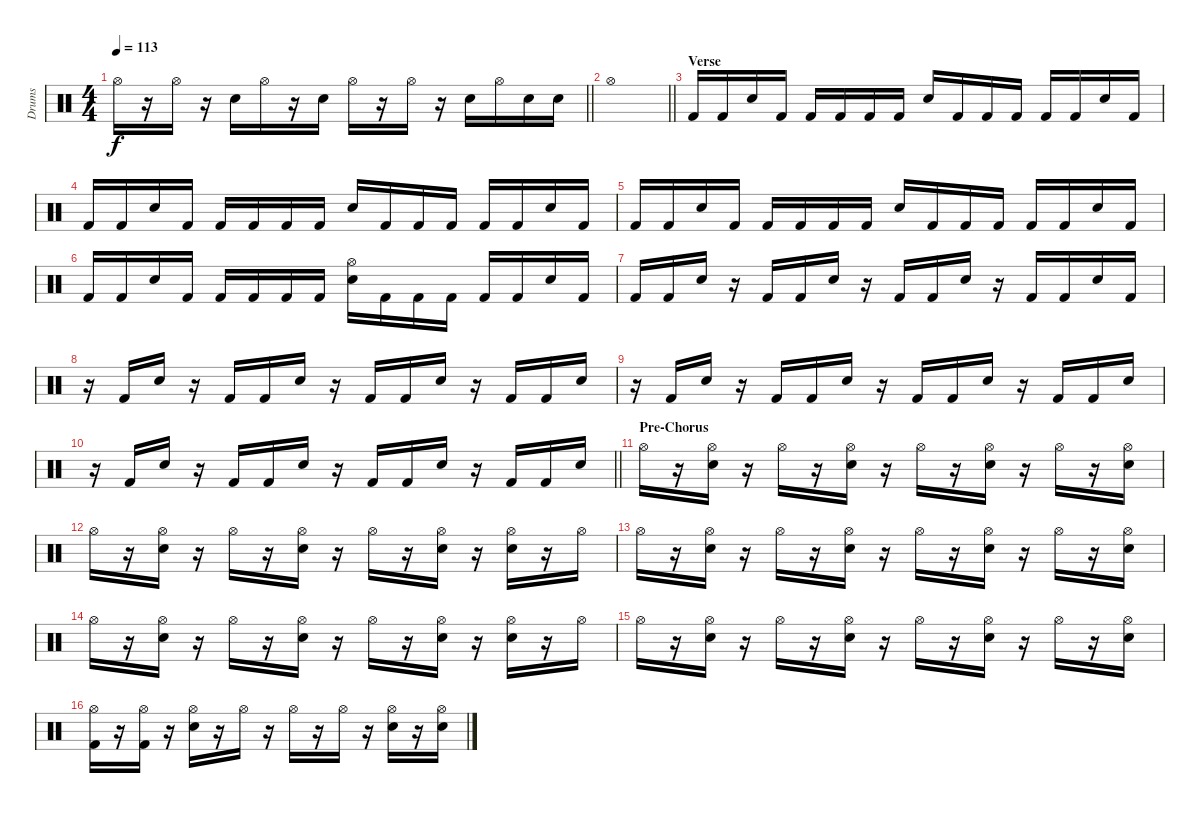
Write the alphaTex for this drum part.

\track ("Drums" "Drums") {instrument percussion}
\staff {score}
\articulation defaults
\ts (4 4)
\tempo 113
\clef neutral
\barLineRight lightlight
\ks c "Hi-Hat (open)".16{dy f}
r.16 "Hi-Hat (open)".16 r.16 "Electric Snare (hit)".16 "Hi-Hat (open)".16 r.16 "Electric Snare (hit)".16 "Hi-Hat (open)".16 r.16 "Hi-Hat (open)".16 r.16 "Electric Snare (hit)".16 "Hi-Hat (open)".16 "Electric Snare (hit)".16 "Electric Snare (hit)".16 |
\barLineRight lightlight "Hi-Hat (open)".1
|
\section ("" "Verse")
"Kick (hit) 2".16 "Kick (hit) 2".16 "Electric Snare (hit)".16 "Kick (hit) 2".16 "Kick (hit) 2".16 "Kick (hit) 2".16 "Kick (hit) 2".16 "Kick (hit) 2".16 "Electric Snare (hit)".16 "Kick (hit) 2".16 "Kick (hit) 2".16 "Kick (hit) 2".16 "Kick (hit) 2".16 "Kick (hit) 2".16 "Electric Snare (hit)".16 "Kick (hit) 2".16 |
"Kick (hit) 2".16 "Kick (hit) 2".16 "Electric Snare (hit)".16 "Kick (hit) 2".16 "Kick (hit) 2".16 "Kick (hit) 2".16 "Kick (hit) 2".16 "Kick (hit) 2".16 "Electric Snare (hit)".16 "Kick (hit) 2".16 "Kick (hit) 2".16 "Kick (hit) 2".16 "Kick (hit) 2".16 "Kick (hit) 2".16 "Electric Snare (hit)".16 "Kick (hit) 2".16 |
"Kick (hit) 2".16 "Kick (hit) 2".16 "Electric Snare (hit)".16 "Kick (hit) 2".16 "Kick (hit) 2".16 "Kick (hit) 2".16 "Kick (hit) 2".16 "Kick (hit) 2".16 "Electric Snare (hit)".16 "Kick (hit) 2".16 "Kick (hit) 2".16 "Kick (hit) 2".16 "Kick (hit) 2".16 "Kick (hit) 2".16 "Electric Snare (hit)".16 "Kick (hit) 2".16 |
"Kick (hit) 2".16 "Kick (hit) 2".16 "Electric Snare (hit)".16 "Kick (hit) 2".16 "Kick (hit) 2".16 "Kick (hit) 2".16 "Kick (hit) 2".16 "Kick (hit) 2".16 ("Hi-Hat (open)" "Electric Snare (hit)").16 "Kick (hit) 2".16 "Kick (hit) 2".16 "Kick (hit) 2".16 "Kick (hit) 2".16 "Kick (hit) 2".16 "Electric Snare (hit)".16 "Kick (hit) 2".16 |
"Kick (hit) 2".16 "Kick (hit) 2".16 "Electric Snare (hit)".16 r.16 "Kick (hit) 2".16 "Kick (hit) 2".16 "Electric Snare (hit)".16 r.16 "Kick (hit) 2".16 "Kick (hit) 2".16 "Electric Snare (hit)".16 r.16 "Kick (hit) 2".16 "Kick (hit) 2".16 "Electric Snare (hit)".16 "Kick (hit) 2".16 |
r.16 "Kick (hit) 2".16 "Electric Snare (hit)".16 r.16 "Kick (hit) 2".16 "Kick (hit) 2".16 "Electric Snare (hit)".16 r.16 "Kick (hit) 2".16 "Kick (hit) 2".16 "Electric Snare (hit)".16 r.16 "Kick (hit) 2".16 "Kick (hit) 2".16 "Electric Snare (hit)".16 |
r.16 "Kick (hit) 2".16 "Electric Snare (hit)".16 r.16 "Kick (hit) 2".16 "Kick (hit) 2".16 "Electric Snare (hit)".16 r.16 "Kick (hit) 2".16 "Kick (hit) 2".16 "Electric Snare (hit)".16 r.16 "Kick (hit) 2".16 "Kick (hit) 2".16 "Electric Snare (hit)".16 |
\barLineRight lightlight
r.16 "Kick (hit) 2".16 "Electric Snare (hit)".16 r.16 "Kick (hit) 2".16 "Kick (hit) 2".16 "Electric Snare (hit)".16 r.16 "Kick (hit) 2".16 "Kick (hit) 2".16 "Electric Snare (hit)".16 r.16 "Kick (hit) 2".16 "Kick (hit) 2".16 "Electric Snare (hit)".16 |
\section ("" "Pre-Chorus")
"Hi-Hat (open)".16 r.16 ("Hi-Hat (open)" "Electric Snare (hit)").16 r.16 "Hi-Hat (open)".16 r.16 ("Hi-Hat (open)" "Electric Snare (hit)").16 r.16 "Hi-Hat (open)".16 r.16 ("Hi-Hat (open)" "Electric Snare (hit)").16 r.16 "Hi-Hat (open)".16 r.16 ("Hi-Hat (open)" "Electric Snare (hit)").16 |
"Hi-Hat (open)".16 r.16 ("Hi-Hat (open)" "Electric Snare (hit)").16 r.16 "Hi-Hat (open)".16 r.16 ("Hi-Hat (open)" "Electric Snare (hit)").16 r.16 "Hi-Hat (open)".16 r.16 ("Hi-Hat (open)" "Electric Snare (hit)").16 r.16 ("Hi-Hat (open)" "Electric Snare (hit)").16 r.16 "Hi-Hat (open)".16 |
"Hi-Hat (open)".16 r.16 ("Hi-Hat (open)" "Electric Snare (hit)").16 r.16 "Hi-Hat (open)".16 r.16 ("Hi-Hat (open)" "Electric Snare (hit)").16 r.16 "Hi-Hat (open)".16 r.16 ("Hi-Hat (open)" "Electric Snare (hit)").16 r.16 "Hi-Hat (open)".16 r.16 ("Hi-Hat (open)" "Electric Snare (hit)").16 |
"Hi-Hat (open)".16 r.16 ("Hi-Hat (open)" "Electric Snare (hit)").16 r.16 "Hi-Hat (open)".16 r.16 ("Hi-Hat (open)" "Electric Snare (hit)").16 r.16 "Hi-Hat (open)".16 r.16 ("Hi-Hat (open)" "Electric Snare (hit)").16 r.16 ("Hi-Hat (open)" "Electric Snare (hit)").16 r.16 "Hi-Hat (open)".16 |
"Hi-Hat (open)".16 r.16 ("Hi-Hat (open)" "Electric Snare (hit)").16 r.16 "Hi-Hat (open)".16 r.16 ("Hi-Hat (open)" "Electric Snare (hit)").16 r.16 "Hi-Hat (open)".16 r.16 ("Hi-Hat (open)" "Electric Snare (hit)").16 r.16 "Hi-Hat (open)".16 r.16 ("Hi-Hat (open)" "Electric Snare (hit)").16 |
("Hi-Hat (open)" "Kick (hit) 2").16 r.16 ("Hi-Hat (open)" "Kick (hit) 2").16 r.16 ("Hi-Hat (open)" "Electric Snare (hit)").16 r.16 "Hi-Hat (open)".16 r.16 "Hi-Hat (open)".16 r.16 "Hi-Hat (open)".16 r.16 ("Hi-Hat (open)" "Electric Snare (hit)").16 r.16 ("Hi-Hat (open)" "Electric Snare (hit)").16
